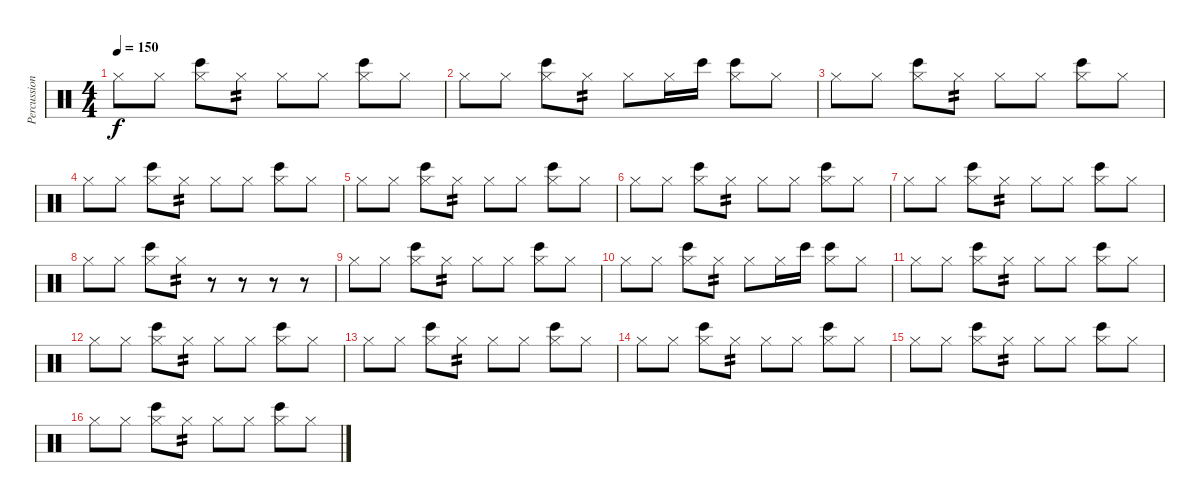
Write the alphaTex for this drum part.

\track ("Percussion" "Percussion") {instrument percussion}
\staff {score}
\articulation defaults
\ts (4 4)
\tempo 150
\clef neutral
\ks c "Hi-Hat (closed)".8{dy f} "Hi-Hat (closed)".8
("Hi-Hat (closed)" "Bongo High (hit)").8 "Hi-Hat (closed)".8{tp 2} "Hi-Hat (closed)".8 "Hi-Hat (closed)".8 ("Hi-Hat (closed)" "Bongo High (hit)").8 "Hi-Hat (closed)".8 |
"Hi-Hat (closed)".8 "Hi-Hat (closed)".8 ("Hi-Hat (closed)" "Bongo High (hit)").8 "Hi-Hat (closed)".8{tp 2} "Hi-Hat (closed)".8 "Hi-Hat (closed)".16 "Bongo High (hit)".16 ("Hi-Hat (closed)" "Bongo High (hit)").8 "Hi-Hat (closed)".8 |
"Hi-Hat (closed)".8 "Hi-Hat (closed)".8 ("Hi-Hat (closed)" "Bongo High (hit)").8 "Hi-Hat (closed)".8{tp 2} "Hi-Hat (closed)".8 "Hi-Hat (closed)".8 ("Hi-Hat (closed)" "Bongo High (hit)").8 "Hi-Hat (closed)".8 |
"Hi-Hat (closed)".8 "Hi-Hat (closed)".8 ("Hi-Hat (closed)" "Bongo High (hit)").8 "Hi-Hat (closed)".8{tp 2} "Hi-Hat (closed)".8 "Hi-Hat (closed)".8 ("Hi-Hat (closed)" "Bongo High (hit)").8 "Hi-Hat (closed)".8 |
"Hi-Hat (closed)".8 "Hi-Hat (closed)".8 ("Hi-Hat (closed)" "Bongo High (hit)").8 "Hi-Hat (closed)".8{tp 2} "Hi-Hat (closed)".8 "Hi-Hat (closed)".8 ("Hi-Hat (closed)" "Bongo High (hit)").8 "Hi-Hat (closed)".8 |
"Hi-Hat (closed)".8 "Hi-Hat (closed)".8 ("Hi-Hat (closed)" "Bongo High (hit)").8 "Hi-Hat (closed)".8{tp 2} "Hi-Hat (closed)".8 "Hi-Hat (closed)".8 ("Hi-Hat (closed)" "Bongo High (hit)").8 "Hi-Hat (closed)".8 |
"Hi-Hat (closed)".8 "Hi-Hat (closed)".8 ("Hi-Hat (closed)" "Bongo High (hit)").8 "Hi-Hat (closed)".8{tp 2} "Hi-Hat (closed)".8 "Hi-Hat (closed)".8 ("Hi-Hat (closed)" "Bongo High (hit)").8 "Hi-Hat (closed)".8 |
"Hi-Hat (closed)".8 "Hi-Hat (closed)".8 ("Hi-Hat (closed)" "Bongo High (hit)").8 "Hi-Hat (closed)".8{tp 2} r.8 r.8 r.8 r.8 |
"Hi-Hat (closed)".8 "Hi-Hat (closed)".8 ("Hi-Hat (closed)" "Bongo High (hit)").8 "Hi-Hat (closed)".8{tp 2} "Hi-Hat (closed)".8 "Hi-Hat (closed)".8 ("Hi-Hat (closed)" "Bongo High (hit)").8 "Hi-Hat (closed)".8 |
"Hi-Hat (closed)".8 "Hi-Hat (closed)".8 ("Hi-Hat (closed)" "Bongo High (hit)").8 "Hi-Hat (closed)".8{tp 2} "Hi-Hat (closed)".8 "Hi-Hat (closed)".16 "Bongo High (hit)".16 ("Hi-Hat (closed)" "Bongo High (hit)").8 "Hi-Hat (closed)".8 |
"Hi-Hat (closed)".8 "Hi-Hat (closed)".8 ("Hi-Hat (closed)" "Bongo High (hit)").8 "Hi-Hat (closed)".8{tp 2} "Hi-Hat (closed)".8 "Hi-Hat (closed)".8 ("Hi-Hat (closed)" "Bongo High (hit)").8 "Hi-Hat (closed)".8 |
"Hi-Hat (closed)".8 "Hi-Hat (closed)".8 ("Hi-Hat (closed)" "Bongo High (hit)").8 "Hi-Hat (closed)".8{tp 2} "Hi-Hat (closed)".8 "Hi-Hat (closed)".8 ("Hi-Hat (closed)" "Bongo High (hit)").8 "Hi-Hat (closed)".8 |
"Hi-Hat (closed)".8 "Hi-Hat (closed)".8 ("Hi-Hat (closed)" "Bongo High (hit)").8 "Hi-Hat (closed)".8{tp 2} "Hi-Hat (closed)".8 "Hi-Hat (closed)".8 ("Hi-Hat (closed)" "Bongo High (hit)").8 "Hi-Hat (closed)".8 |
"Hi-Hat (closed)".8 "Hi-Hat (closed)".8 ("Hi-Hat (closed)" "Bongo High (hit)").8 "Hi-Hat (closed)".8{tp 2} "Hi-Hat (closed)".8 "Hi-Hat (closed)".8 ("Hi-Hat (closed)" "Bongo High (hit)").8 "Hi-Hat (closed)".8 |
"Hi-Hat (closed)".8 "Hi-Hat (closed)".8 ("Hi-Hat (closed)" "Bongo High (hit)").8 "Hi-Hat (closed)".8{tp 2} "Hi-Hat (closed)".8 "Hi-Hat (closed)".8 ("Hi-Hat (closed)" "Bongo High (hit)").8 "Hi-Hat (closed)".8 |
"Hi-Hat (closed)".8 "Hi-Hat (closed)".8 ("Hi-Hat (closed)" "Bongo High (hit)").8 "Hi-Hat (closed)".8{tp 2} "Hi-Hat (closed)".8 "Hi-Hat (closed)".8 ("Hi-Hat (closed)" "Bongo High (hit)").8 "Hi-Hat (closed)".8
